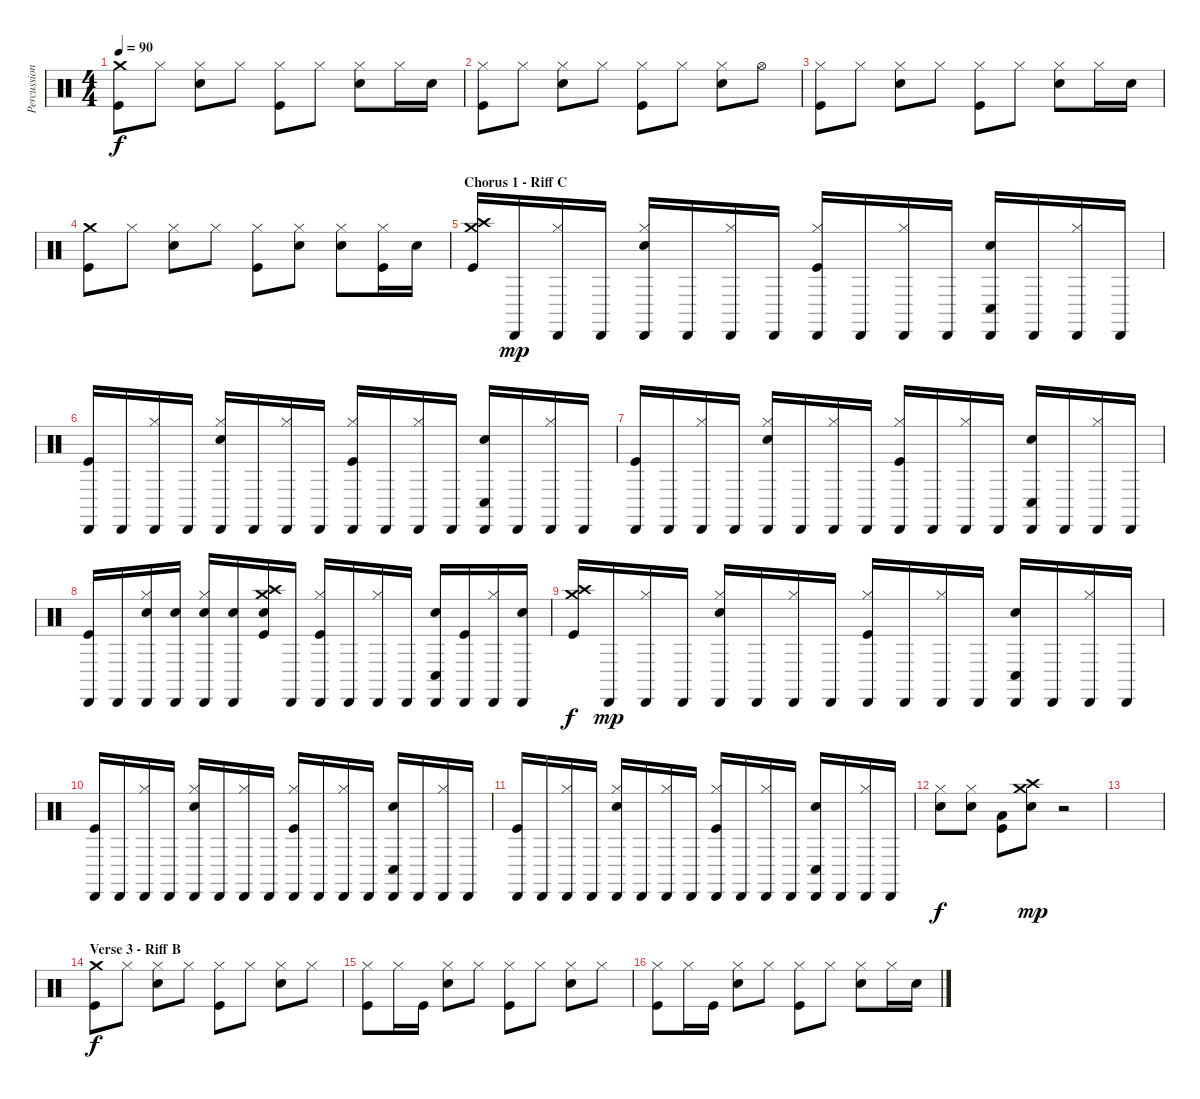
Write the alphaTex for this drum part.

\track ("Percussion (DK 0)" "Percussion") {instrument percussion}
\staff {score}
\articulation defaults
\ts (4 4)
\tempo 90
\clef neutral
\ks c
("Crash medium (hit)" "Kick (hit)").8{dy f} "Hi-Hat (closed)".8 ("Hi-Hat (closed)" "Electric Snare (hit)").8 "Hi-Hat (closed)".8 ("Hi-Hat (closed)" "Kick (hit)").8 "Hi-Hat (closed)".8 ("Hi-Hat (closed)" "Electric Snare (hit)").8 "Hi-Hat (closed)".16 "Electric Snare (hit)".16 |
("Hi-Hat (closed)" "Kick (hit)").8 "Hi-Hat (closed)".8 ("Hi-Hat (closed)" "Electric Snare (hit)").8 "Hi-Hat (closed)".8 ("Hi-Hat (closed)" "Kick (hit)").8 "Hi-Hat (closed)".8 ("Hi-Hat (closed)" "Electric Snare (hit)").8 "Hi-Hat (open)".8 |
("Hi-Hat (closed)" "Kick (hit)").8 "Hi-Hat (closed)".8 ("Hi-Hat (closed)" "Electric Snare (hit)").8 "Hi-Hat (closed)".8 ("Hi-Hat (closed)" "Kick (hit)").8 "Hi-Hat (closed)".8 ("Hi-Hat (closed)" "Electric Snare (hit)").8 "Hi-Hat (closed)".16 "Electric Snare (hit)".16 |
("Crash medium (hit)" "Kick (hit)").8 "Hi-Hat (closed)".8 ("Hi-Hat (closed)" "Electric Snare (hit)").8 "Hi-Hat (closed)".8 ("Hi-Hat (closed)" "Kick (hit)").8 ("Hi-Hat (closed)" "Electric Snare (hit)").8 ("Hi-Hat (closed)" "Electric Snare (hit)").8 ("Hi-Hat (closed)" "Kick (hit)").16 "Electric Snare (hit)".16 |
\section ("" "Chorus 1 - Riff C")
("Crash medium (hit)" "Crash high (hit)" "Kick (hit)").16 "Cabasa (hit)".16{dy mp} ("Cabasa (hit)" "Hi-Hat (closed)").16 "Cabasa (hit)".16 ("Cabasa (hit)" "Hi-Hat (closed)" "Electric Snare (hit)").16 "Cabasa (hit)".16 ("Cabasa (hit)" "Hi-Hat (closed)").16 "Cabasa (hit)".16 ("Cabasa (hit)" "Hi-Hat (closed)" "Kick (hit)").16 "Cabasa (hit)".16 ("Cabasa (hit)" "Hi-Hat (closed)").16 "Cabasa (hit)".16 ("Cabasa (hit)" "Conga low (hit)" "Electric Snare (hit)").16 "Cabasa (hit)".16 ("Cabasa (hit)" "Hi-Hat (closed)").16 "Cabasa (hit)".16 |
("Cabasa (hit)" "Kick (hit)").16 "Cabasa (hit)".16 ("Cabasa (hit)" "Hi-Hat (closed)").16 "Cabasa (hit)".16 ("Cabasa (hit)" "Hi-Hat (closed)" "Electric Snare (hit)").16 "Cabasa (hit)".16 ("Cabasa (hit)" "Hi-Hat (closed)").16 "Cabasa (hit)".16 ("Cabasa (hit)" "Hi-Hat (closed)" "Kick (hit)").16 "Cabasa (hit)".16 ("Cabasa (hit)" "Hi-Hat (closed)").16 "Cabasa (hit)".16 ("Cabasa (hit)" "Conga low (hit)" "Electric Snare (hit)").16 "Cabasa (hit)".16 ("Cabasa (hit)" "Hi-Hat (closed)").16 "Cabasa (hit)".16 |
("Cabasa (hit)" "Kick (hit)").16 "Cabasa (hit)".16 ("Cabasa (hit)" "Hi-Hat (closed)").16 "Cabasa (hit)".16 ("Cabasa (hit)" "Hi-Hat (closed)" "Electric Snare (hit)").16 "Cabasa (hit)".16 ("Cabasa (hit)" "Hi-Hat (closed)").16 "Cabasa (hit)".16 ("Cabasa (hit)" "Hi-Hat (closed)" "Kick (hit)").16 "Cabasa (hit)".16 ("Cabasa (hit)" "Hi-Hat (closed)").16 "Cabasa (hit)".16 ("Cabasa (hit)" "Conga low (hit)" "Electric Snare (hit)").16 "Cabasa (hit)".16 ("Cabasa (hit)" "Hi-Hat (closed)").16 "Cabasa (hit)".16 |
("Cabasa (hit)" "Kick (hit)").16 "Cabasa (hit)".16 ("Cabasa (hit)" "Hi-Hat (closed)" "Electric Snare (hit)").16 ("Cabasa (hit)" "Electric Snare (hit)").16 ("Cabasa (hit)" "Hi-Hat (closed)" "Electric Snare (hit)").16 ("Cabasa (hit)" "Electric Snare (hit)").16 ("Crash high (hit)" "Crash medium (hit)" "Electric Snare (hit)" "Kick (hit)").16 "Cabasa (hit)".16 ("Cabasa (hit)" "Hi-Hat (closed)" "Kick (hit)").16 "Cabasa (hit)".16 ("Cabasa (hit)" "Hi-Hat (closed)").16 "Cabasa (hit)".16 ("Cabasa (hit)" "Conga low (hit)" "Electric Snare (hit)").16 ("Cabasa (hit)" "Kick (hit)").16 ("Cabasa (hit)" "Hi-Hat (closed)").16 ("Cabasa (hit)" "Electric Snare (hit)").16 |
("Crash medium (hit)" "Crash high (hit)" "Kick (hit)").16{dy f} "Cabasa (hit)".16{dy mp} ("Cabasa (hit)" "Hi-Hat (closed)").16 "Cabasa (hit)".16 ("Cabasa (hit)" "Hi-Hat (closed)" "Electric Snare (hit)").16 "Cabasa (hit)".16 ("Cabasa (hit)" "Hi-Hat (closed)").16 "Cabasa (hit)".16 ("Cabasa (hit)" "Hi-Hat (closed)" "Kick (hit)").16 "Cabasa (hit)".16 ("Cabasa (hit)" "Hi-Hat (closed)").16 "Cabasa (hit)".16 ("Cabasa (hit)" "Conga low (hit)" "Electric Snare (hit)").16 "Cabasa (hit)".16 ("Cabasa (hit)" "Hi-Hat (closed)").16 "Cabasa (hit)".16 |
("Cabasa (hit)" "Kick (hit)").16 "Cabasa (hit)".16 ("Cabasa (hit)" "Hi-Hat (closed)").16 "Cabasa (hit)".16 ("Cabasa (hit)" "Hi-Hat (closed)" "Electric Snare (hit)").16 "Cabasa (hit)".16 ("Cabasa (hit)" "Hi-Hat (closed)").16 "Cabasa (hit)".16 ("Cabasa (hit)" "Hi-Hat (closed)" "Kick (hit)").16 "Cabasa (hit)".16 ("Cabasa (hit)" "Hi-Hat (closed)").16 "Cabasa (hit)".16 ("Cabasa (hit)" "Conga low (hit)" "Electric Snare (hit)").16 "Cabasa (hit)".16 ("Cabasa (hit)" "Hi-Hat (closed)").16 "Cabasa (hit)".16 |
("Cabasa (hit)" "Kick (hit)").16 "Cabasa (hit)".16 ("Cabasa (hit)" "Hi-Hat (closed)").16 "Cabasa (hit)".16 ("Cabasa (hit)" "Hi-Hat (closed)" "Electric Snare (hit)").16 "Cabasa (hit)".16 ("Cabasa (hit)" "Hi-Hat (closed)").16 "Cabasa (hit)".16 ("Cabasa (hit)" "Hi-Hat (closed)" "Kick (hit)").16 "Cabasa (hit)".16 ("Cabasa (hit)" "Hi-Hat (closed)").16 "Cabasa (hit)".16 ("Cabasa (hit)" "Conga low (hit)" "Electric Snare (hit)").16 "Cabasa (hit)".16 ("Cabasa (hit)" "Hi-Hat (closed)").16 "Cabasa (hit)".16 |
("Hi-Hat (closed)" "Electric Snare (hit)").8{dy f} ("Hi-Hat (closed)" "Electric Snare (hit)").8 ("Low Tom (hit)" "Kick (hit)").8 ("Crash high (hit)" "Crash medium (hit)" "Electric Snare (hit)").8{dy mp} r.2 |
|
\section ("" "Verse 3 - Riff B")
("Crash medium (hit)" "Kick (hit)").8{dy f} "Hi-Hat (closed)".8 ("Hi-Hat (closed)" "Electric Snare (hit)").8 "Hi-Hat (closed)".8 ("Hi-Hat (closed)" "Kick (hit)").8 "Hi-Hat (closed)".8 ("Hi-Hat (closed)" "Electric Snare (hit)").8 "Hi-Hat (closed)".8 |
("Hi-Hat (closed)" "Kick (hit)").8 "Hi-Hat (closed)".16 "Kick (hit)".16 ("Hi-Hat (closed)" "Electric Snare (hit)").8 "Hi-Hat (closed)".8 ("Hi-Hat (closed)" "Kick (hit)").8 "Hi-Hat (closed)".8 ("Hi-Hat (closed)" "Electric Snare (hit)").8 "Hi-Hat (closed)".8 |
("Hi-Hat (closed)" "Kick (hit)").8 "Hi-Hat (closed)".16 "Kick (hit)".16 ("Hi-Hat (closed)" "Electric Snare (hit)").8 "Hi-Hat (closed)".8 ("Hi-Hat (closed)" "Kick (hit)").8 "Hi-Hat (closed)".8 ("Hi-Hat (closed)" "Electric Snare (hit)").8 "Hi-Hat (closed)".16 "Electric Snare (hit)".16
